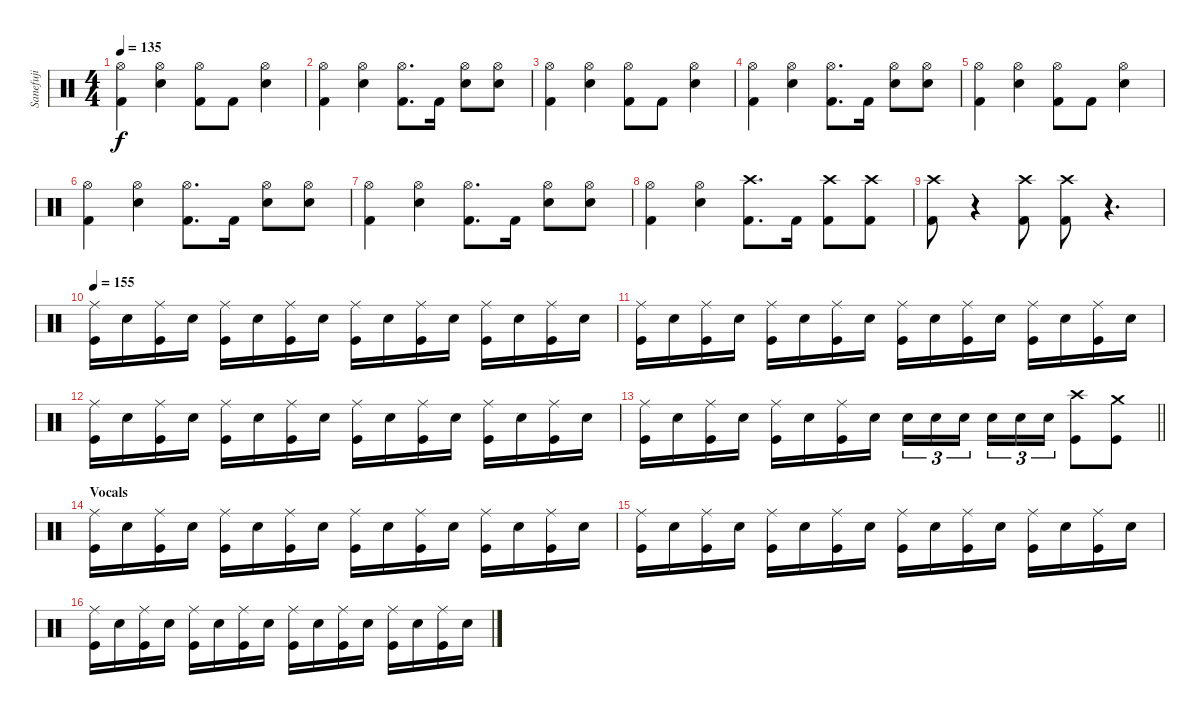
\track ("Sanefuji" "Sanefuji") {instrument percussion}
\staff {score}
\articulation defaults
\ts (4 4)
\tempo 135
\clef neutral
\ks c
("Hi-Hat (open)" "Kick (hit) 2").4{dy f} ("Hi-Hat (open)" "Electric Snare (hit)").4 ("Hi-Hat (open)" "Kick (hit) 2").8 "Kick (hit) 2".8 ("Hi-Hat (open)" "Electric Snare (hit)").4 |
("Hi-Hat (open)" "Kick (hit) 2").4 ("Hi-Hat (open)" "Electric Snare (hit)").4 ("Hi-Hat (open)" "Kick (hit) 2").8{d} "Kick (hit) 2".16 ("Hi-Hat (open)" "Electric Snare (hit)").8 ("Hi-Hat (open)" "Electric Snare (hit)").8 |
("Hi-Hat (open)" "Kick (hit) 2").4 ("Hi-Hat (open)" "Electric Snare (hit)").4 ("Hi-Hat (open)" "Kick (hit) 2").8 "Kick (hit) 2".8 ("Hi-Hat (open)" "Electric Snare (hit)").4 |
("Hi-Hat (open)" "Kick (hit) 2").4 ("Hi-Hat (open)" "Electric Snare (hit)").4 ("Hi-Hat (open)" "Kick (hit) 2").8{d} "Kick (hit) 2".16 ("Hi-Hat (open)" "Electric Snare (hit)").8 ("Hi-Hat (open)" "Electric Snare (hit)").8 |
("Hi-Hat (open)" "Kick (hit) 2").4 ("Hi-Hat (open)" "Electric Snare (hit)").4 ("Hi-Hat (open)" "Kick (hit) 2").8 "Kick (hit) 2".8 ("Hi-Hat (open)" "Electric Snare (hit)").4 |
("Hi-Hat (open)" "Kick (hit) 2").4 ("Hi-Hat (open)" "Electric Snare (hit)").4 ("Hi-Hat (open)" "Kick (hit) 2").8{d} "Kick (hit) 2".16 ("Hi-Hat (open)" "Electric Snare (hit)").8 ("Hi-Hat (open)" "Electric Snare (hit)").8 |
("Hi-Hat (open)" "Kick (hit) 2").4 ("Hi-Hat (open)" "Electric Snare (hit)").4 ("Hi-Hat (open)" "Kick (hit) 2").8{d} "Kick (hit) 2".16 ("Hi-Hat (open)" "Electric Snare (hit)").8 ("Hi-Hat (open)" "Electric Snare (hit)").8 |
("Hi-Hat (open)" "Kick (hit) 2").4 ("Hi-Hat (open)" "Electric Snare (hit)").4 ("Crash high (hit)" "Kick (hit) 2").8{d} "Kick (hit) 2".16 ("Crash high (hit)" "Kick (hit) 2").8 ("Crash high (hit)" "Kick (hit) 2").8 |
("Crash high (hit)" "Kick (hit) 2").8 r.4 ("Crash high (hit)" "Kick (hit) 2").8 ("Crash high (hit)" "Kick (hit) 2").8 r.4{d} |
\tempo 155
("Ride (middle)" "Kick (hit)").16 "Electric Snare (hit)".16 ("Ride (middle)" "Kick (hit)").16 "Electric Snare (hit)".16 ("Ride (middle)" "Kick (hit)").16 "Electric Snare (hit)".16 ("Ride (middle)" "Kick (hit)").16 "Electric Snare (hit)".16 ("Ride (middle)" "Kick (hit)").16 "Electric Snare (hit)".16 ("Ride (middle)" "Kick (hit)").16 "Electric Snare (hit)".16 ("Ride (middle)" "Kick (hit)").16 "Electric Snare (hit)".16 ("Ride (middle)" "Kick (hit)").16 "Electric Snare (hit)".16 |
("Ride (middle)" "Kick (hit)").16 "Electric Snare (hit)".16 ("Ride (middle)" "Kick (hit)").16 "Electric Snare (hit)".16 ("Ride (middle)" "Kick (hit)").16 "Electric Snare (hit)".16 ("Ride (middle)" "Kick (hit)").16 "Electric Snare (hit)".16 ("Ride (middle)" "Kick (hit)").16 "Electric Snare (hit)".16 ("Ride (middle)" "Kick (hit)").16 "Electric Snare (hit)".16 ("Ride (middle)" "Kick (hit)").16 "Electric Snare (hit)".16 ("Ride (middle)" "Kick (hit)").16 "Electric Snare (hit)".16 |
("Ride (middle)" "Kick (hit)").16 "Electric Snare (hit)".16 ("Ride (middle)" "Kick (hit)").16 "Electric Snare (hit)".16 ("Ride (middle)" "Kick (hit)").16 "Electric Snare (hit)".16 ("Ride (middle)" "Kick (hit)").16 "Electric Snare (hit)".16 ("Ride (middle)" "Kick (hit)").16 "Electric Snare (hit)".16 ("Ride (middle)" "Kick (hit)").16 "Electric Snare (hit)".16 ("Ride (middle)" "Kick (hit)").16 "Electric Snare (hit)".16 ("Ride (middle)" "Kick (hit)").16 "Electric Snare (hit)".16 |
\barLineRight lightlight
("Ride (middle)" "Kick (hit)").16 "Electric Snare (hit)".16 ("Ride (middle)" "Kick (hit)").16 "Electric Snare (hit)".16 ("Ride (middle)" "Kick (hit)").16 "Electric Snare (hit)".16 ("Ride (middle)" "Kick (hit)").16 "Electric Snare (hit)".16 "Electric Snare (hit)".16{tu (3 2)} "Electric Snare (hit)".16{tu (3 2)} "Electric Snare (hit)".16{tu (3 2) beam splitsecondary} "Electric Snare (hit)".16{tu (3 2)} "Electric Snare (hit)".16{tu (3 2)} "Electric Snare (hit)".16{tu (3 2)} ("Crash high (hit)" "Kick (hit)").8 ("Crash medium (hit)" "Kick (hit)").8 |
\section ("" "Vocals")
("Ride (middle)" "Kick (hit)").16 "Electric Snare (hit)".16 ("Ride (middle)" "Kick (hit)").16 "Electric Snare (hit)".16 ("Ride (middle)" "Kick (hit)").16 "Electric Snare (hit)".16 ("Ride (middle)" "Kick (hit)").16 "Electric Snare (hit)".16 ("Ride (middle)" "Kick (hit)").16 "Electric Snare (hit)".16 ("Ride (middle)" "Kick (hit)").16 "Electric Snare (hit)".16 ("Ride (middle)" "Kick (hit)").16 "Electric Snare (hit)".16 ("Ride (middle)" "Kick (hit)").16 "Electric Snare (hit)".16 |
("Ride (middle)" "Kick (hit)").16 "Electric Snare (hit)".16 ("Ride (middle)" "Kick (hit)").16 "Electric Snare (hit)".16 ("Ride (middle)" "Kick (hit)").16 "Electric Snare (hit)".16 ("Ride (middle)" "Kick (hit)").16 "Electric Snare (hit)".16 ("Ride (middle)" "Kick (hit)").16 "Electric Snare (hit)".16 ("Ride (middle)" "Kick (hit)").16 "Electric Snare (hit)".16 ("Ride (middle)" "Kick (hit)").16 "Electric Snare (hit)".16 ("Ride (middle)" "Kick (hit)").16 "Electric Snare (hit)".16 |
("Ride (middle)" "Kick (hit)").16 "Electric Snare (hit)".16 ("Ride (middle)" "Kick (hit)").16 "Electric Snare (hit)".16 ("Ride (middle)" "Kick (hit)").16 "Electric Snare (hit)".16 ("Ride (middle)" "Kick (hit)").16 "Electric Snare (hit)".16 ("Ride (middle)" "Kick (hit)").16 "Electric Snare (hit)".16 ("Ride (middle)" "Kick (hit)").16 "Electric Snare (hit)".16 ("Ride (middle)" "Kick (hit)").16 "Electric Snare (hit)".16 ("Ride (middle)" "Kick (hit)").16 "Electric Snare (hit)".16
